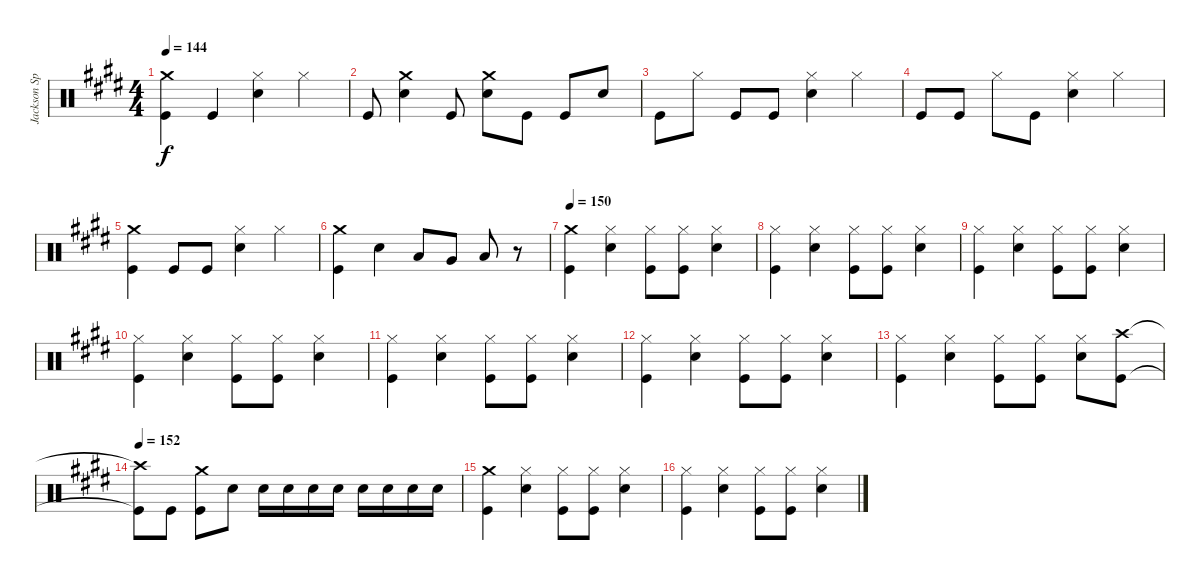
\track ("Jackson Spiers Drums" "Jackson Sp") {instrument percussion}
\staff {score}
\articulation defaults
\ts (4 4)
\tempo 144
\clef neutral
\ks c#minor
("Crash medium (hit)" "Kick (hit)").4{dy f} "Kick (hit)".4 ("Hi-Hat (closed)" "Snare (hit) 2").4 "Hi-Hat (closed)".4 |
"Kick (hit)".8 ("Crash medium (hit)" "Snare (hit) 2").4 "Kick (hit)".8 ("Crash medium (hit)" "Snare (hit) 2").8 "Kick (hit)".8 "Kick (hit)".8 "Snare (hit) 2".8 |
"Kick (hit)".8 "Hi-Hat (closed)".8 "Kick (hit)".8 "Kick (hit)".8 ("Hi-Hat (closed)" "Snare (hit) 2").4 "Hi-Hat (closed)".4 |
"Kick (hit)".8 "Kick (hit)".8 "Hi-Hat (closed)".8 "Kick (hit)".8 ("Hi-Hat (closed)" "Snare (hit) 2").4 "Hi-Hat (closed)".4 |
("Crash medium (hit)" "Kick (hit)").4 "Kick (hit)".8 "Kick (hit)".8 ("Hi-Hat (closed)" "Snare (hit) 2").4 "Hi-Hat (closed)".4 |
("Crash medium (hit)" "Kick (hit)").4 "Snare (hit) 2".4 "Low Tom (hit)".8 "Very Low Tom (hit)".8 "Low Floor Tom (hit)".8 r.8 |
\tempo 150
("Crash medium (hit)" "Kick (hit)").4 ("Hi-Hat (closed)" "Snare (hit) 2").4 ("Hi-Hat (closed)" "Kick (hit)").8 ("Hi-Hat (closed)" "Kick (hit)").8 ("Hi-Hat (closed)" "Snare (hit) 2").4 |
("Hi-Hat (closed)" "Kick (hit)").4 ("Hi-Hat (closed)" "Snare (hit) 2").4 ("Hi-Hat (closed)" "Kick (hit)").8 ("Hi-Hat (closed)" "Kick (hit)").8 ("Hi-Hat (closed)" "Snare (hit) 2").4 |
("Hi-Hat (closed)" "Kick (hit)").4 ("Hi-Hat (closed)" "Snare (hit) 2").4 ("Hi-Hat (closed)" "Kick (hit)").8 ("Hi-Hat (closed)" "Kick (hit)").8 ("Hi-Hat (closed)" "Snare (hit) 2").4 |
("Hi-Hat (closed)" "Kick (hit)").4 ("Hi-Hat (closed)" "Snare (hit) 2").4 ("Hi-Hat (closed)" "Kick (hit)").8 ("Hi-Hat (closed)" "Kick (hit)").8 ("Hi-Hat (closed)" "Snare (hit) 2").4 |
("Hi-Hat (closed)" "Kick (hit)").4 ("Hi-Hat (closed)" "Snare (hit) 2").4 ("Hi-Hat (closed)" "Kick (hit)").8 ("Hi-Hat (closed)" "Kick (hit)").8 ("Hi-Hat (closed)" "Snare (hit) 2").4 |
("Hi-Hat (closed)" "Kick (hit)").4 ("Hi-Hat (closed)" "Snare (hit) 2").4 ("Hi-Hat (closed)" "Kick (hit)").8 ("Hi-Hat (closed)" "Kick (hit)").8 ("Hi-Hat (closed)" "Snare (hit) 2").4 |
("Hi-Hat (closed)" "Kick (hit)").4 ("Hi-Hat (closed)" "Snare (hit) 2").4 ("Hi-Hat (closed)" "Kick (hit)").8 ("Hi-Hat (closed)" "Kick (hit)").8 ("Hi-Hat (closed)" "Snare (hit) 2").8 ("Crash high (hit)" "Kick (hit)").8 |
\tempo 152
("Crash high (hit)"{t} "Kick (hit)"{t}).8 "Kick (hit)".8 ("Crash medium (hit)" "Kick (hit)").8 "Snare (hit) 2".8 "Snare (hit) 2".16 "Snare (hit) 2".16 "Snare (hit) 2".16 "Snare (hit) 2".16 "Snare (hit) 2".16 "Snare (hit) 2".16 "Snare (hit) 2".16 "Snare (hit) 2".16 |
("Crash medium (hit)" "Kick (hit)").4 ("Hi-Hat (closed)" "Snare (hit) 2").4 ("Hi-Hat (closed)" "Kick (hit)").8 ("Hi-Hat (closed)" "Kick (hit)").8 ("Hi-Hat (closed)" "Snare (hit) 2").4 |
("Hi-Hat (closed)" "Kick (hit)").4 ("Hi-Hat (closed)" "Snare (hit) 2").4 ("Hi-Hat (closed)" "Kick (hit)").8 ("Hi-Hat (closed)" "Kick (hit)").8 ("Hi-Hat (closed)" "Snare (hit) 2").4
